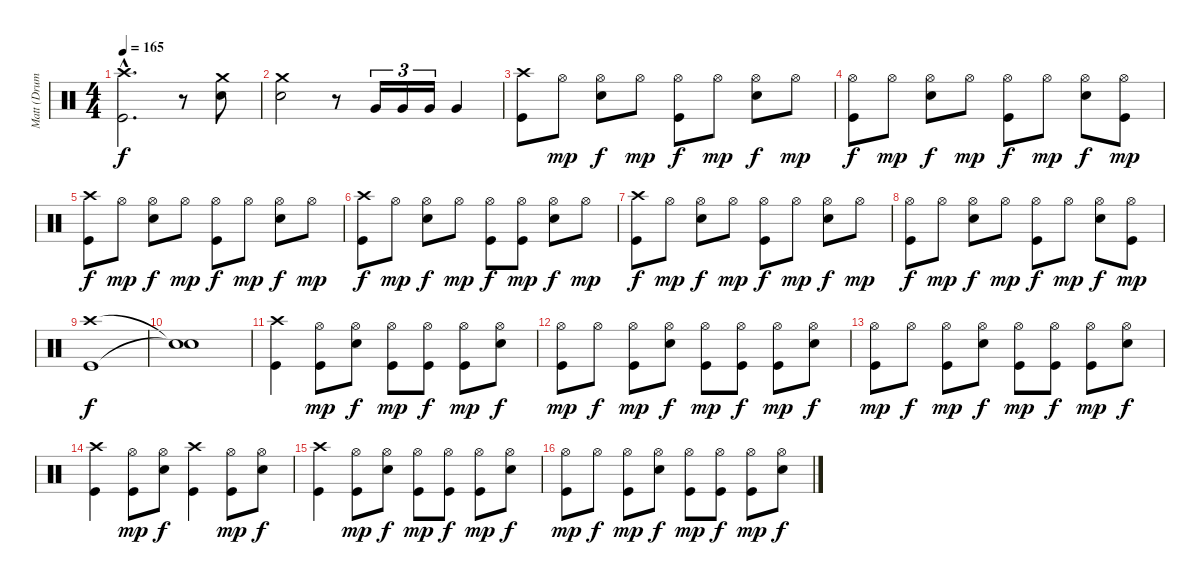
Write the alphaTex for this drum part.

\track ("Matt (Drums)" "Matt (Drum") {instrument percussion}
\staff {score}
\articulation defaults
\ts (4 4)
\tempo 165
\clef neutral
\ks c
("Crash high (hit)"{hac} "Kick (hit)"{hac}).2{d dy f} r.8 ("Crash medium (hit)" "Electric Snare (hit)").8 |
("Crash medium (hit)" "Electric Snare (hit)").2 r.8 "Very Low Tom (hit)".16{tu (3 2)} "Very Low Tom (hit)".16{tu (3 2)} "Very Low Tom (hit)".16{tu (3 2)} "Very Low Tom (hit)".4 |
("Crash high (hit)" "Kick (hit)").8 "Hi-Hat (open)".8{dy mp} ("Hi-Hat (open)" "Electric Snare (hit)").8{dy f} "Hi-Hat (open)".8{dy mp} ("Hi-Hat (open)" "Kick (hit)").8{dy f} "Hi-Hat (open)".8{dy mp} ("Hi-Hat (open)" "Electric Snare (hit)").8{dy f} "Hi-Hat (open)".8{dy mp} |
("Hi-Hat (open)" "Kick (hit)").8{dy f} "Hi-Hat (open)".8{dy mp} ("Hi-Hat (open)" "Electric Snare (hit)").8{dy f} "Hi-Hat (open)".8{dy mp} ("Hi-Hat (open)" "Kick (hit)").8{dy f} "Hi-Hat (open)".8{dy mp} ("Hi-Hat (open)" "Electric Snare (hit)").8{dy f} ("Hi-Hat (open)" "Kick (hit)").8{dy mp} |
("Crash high (hit)" "Kick (hit)").8{dy f} "Hi-Hat (open)".8{dy mp} ("Hi-Hat (open)" "Electric Snare (hit)").8{dy f} "Hi-Hat (open)".8{dy mp} ("Hi-Hat (open)" "Kick (hit)").8{dy f} "Hi-Hat (open)".8{dy mp} ("Hi-Hat (open)" "Electric Snare (hit)").8{dy f} "Hi-Hat (open)".8{dy mp} |
("Crash high (hit)" "Kick (hit)").8{dy f} "Hi-Hat (open)".8{dy mp} ("Hi-Hat (open)" "Electric Snare (hit)").8{dy f} "Hi-Hat (open)".8{dy mp} ("Hi-Hat (open)" "Kick (hit)").8{dy f} ("Hi-Hat (open)" "Kick (hit)").8{dy mp} ("Hi-Hat (open)" "Electric Snare (hit)").8{dy f} "Hi-Hat (open)".8{dy mp} |
("Crash high (hit)" "Kick (hit)").8{dy f} "Hi-Hat (open)".8{dy mp} ("Hi-Hat (open)" "Electric Snare (hit)").8{dy f} "Hi-Hat (open)".8{dy mp} ("Hi-Hat (open)" "Kick (hit)").8{dy f} "Hi-Hat (open)".8{dy mp} ("Hi-Hat (open)" "Electric Snare (hit)").8{dy f} "Hi-Hat (open)".8{dy mp} |
("Hi-Hat (open)" "Kick (hit)").8{dy f} "Hi-Hat (open)".8{dy mp} ("Hi-Hat (open)" "Electric Snare (hit)").8{dy f} "Hi-Hat (open)".8{dy mp} ("Hi-Hat (open)" "Kick (hit)").8{dy f} "Hi-Hat (open)".8{dy mp} ("Hi-Hat (open)" "Electric Snare (hit)").8{dy f} ("Hi-Hat (open)" "Kick (hit)").8{dy mp} |
("Crash high (hit)" "Kick (hit)").1{dy f} |
("Snare (hit)"{t} "Snare (hit)"{t}).1 |
("Crash high (hit)" "Kick (hit)").4 ("Hi-Hat (open)" "Kick (hit)").8{dy mp} ("Hi-Hat (open)" "Electric Snare (hit)").8{dy f} ("Hi-Hat (open)" "Kick (hit)").8{dy mp} ("Hi-Hat (open)" "Kick (hit)").8{dy f} ("Hi-Hat (open)" "Kick (hit)").8{dy mp} ("Hi-Hat (open)" "Electric Snare (hit)").8{dy f} |
("Hi-Hat (open)" "Kick (hit)").8{dy mp} "Hi-Hat (open)".8{dy f} ("Hi-Hat (open)" "Kick (hit)").8{dy mp} ("Hi-Hat (open)" "Electric Snare (hit)").8{dy f} ("Hi-Hat (open)" "Kick (hit)").8{dy mp} ("Hi-Hat (open)" "Kick (hit)").8{dy f} ("Hi-Hat (open)" "Kick (hit)").8{dy mp} ("Hi-Hat (open)" "Electric Snare (hit)").8{dy f} |
("Hi-Hat (open)" "Kick (hit)").8{dy mp} "Hi-Hat (open)".8{dy f} ("Hi-Hat (open)" "Kick (hit)").8{dy mp} ("Hi-Hat (open)" "Electric Snare (hit)").8{dy f} ("Hi-Hat (open)" "Kick (hit)").8{dy mp} ("Hi-Hat (open)" "Kick (hit)").8{dy f} ("Hi-Hat (open)" "Kick (hit)").8{dy mp} ("Hi-Hat (open)" "Electric Snare (hit)").8{dy f} |
("Crash high (hit)" "Kick (hit)").4 ("Hi-Hat (open)" "Kick (hit)").8{dy mp} ("Hi-Hat (open)" "Electric Snare (hit)").8{dy f} ("Crash high (hit)" "Kick (hit)").4 ("Hi-Hat (open)" "Kick (hit)").8{dy mp} ("Hi-Hat (open)" "Electric Snare (hit)").8{dy f} |
("Crash high (hit)" "Kick (hit)").4 ("Hi-Hat (open)" "Kick (hit)").8{dy mp} ("Hi-Hat (open)" "Electric Snare (hit)").8{dy f} ("Hi-Hat (open)" "Kick (hit)").8{dy mp} ("Hi-Hat (open)" "Kick (hit)").8{dy f} ("Hi-Hat (open)" "Kick (hit)").8{dy mp} ("Hi-Hat (open)" "Electric Snare (hit)").8{dy f} |
("Hi-Hat (open)" "Kick (hit)").8{dy mp} "Hi-Hat (open)".8{dy f} ("Hi-Hat (open)" "Kick (hit)").8{dy mp} ("Hi-Hat (open)" "Electric Snare (hit)").8{dy f} ("Hi-Hat (open)" "Kick (hit)").8{dy mp} ("Hi-Hat (open)" "Kick (hit)").8{dy f} ("Hi-Hat (open)" "Kick (hit)").8{dy mp} ("Hi-Hat (open)" "Electric Snare (hit)").8{dy f}
